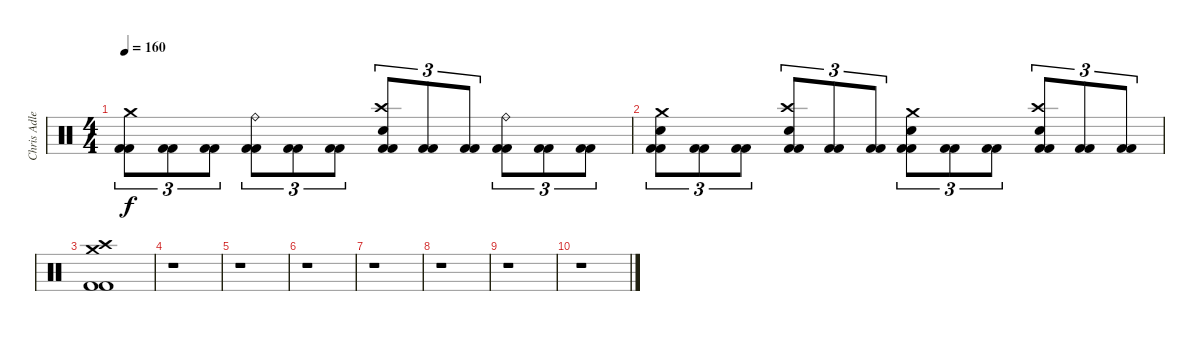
\track ("Chris Adler" "Chris Adle") {instrument percussion}
\staff {score}
\articulation defaults
\ts (4 4)
\tempo 160
\clef neutral
\ks c
("Crash medium (hit)" "Kick (hit) 2" "Kick (hit) 2").8{tu (3 2) dy f} ("Kick (hit) 2" "Kick (hit) 2").8{tu (3 2)} ("Kick (hit) 2" "Kick (hit) 2").8{tu (3 2)} ("Ride (bell)" "Kick (hit) 2" "Kick (hit) 2").8{tu (3 2)} ("Kick (hit) 2" "Kick (hit) 2").8{tu (3 2)} ("Kick (hit) 2" "Kick (hit) 2").8{tu (3 2)} ("Crash high (hit)" "Electric Snare (hit)" "Kick (hit) 2" "Kick (hit) 2").8{tu (3 2)} ("Kick (hit) 2" "Kick (hit) 2").8{tu (3 2)} ("Kick (hit) 2" "Kick (hit) 2").8{tu (3 2)} ("Ride (bell)" "Kick (hit) 2" "Kick (hit) 2").8{tu (3 2)} ("Kick (hit) 2" "Kick (hit) 2").8{tu (3 2)} ("Kick (hit) 2" "Kick (hit) 2").8{tu (3 2)} |
("Crash medium (hit)" "Electric Snare (hit)" "Kick (hit) 2" "Kick (hit) 2").8{tu (3 2)} ("Kick (hit) 2" "Kick (hit) 2").8{tu (3 2)} ("Kick (hit) 2" "Kick (hit) 2").8{tu (3 2)} ("Crash high (hit)" "Electric Snare (hit)" "Kick (hit) 2" "Kick (hit) 2").8{tu (3 2)} ("Kick (hit) 2" "Kick (hit) 2").8{tu (3 2)} ("Kick (hit) 2" "Kick (hit) 2").8{tu (3 2)} ("Crash medium (hit)" "Electric Snare (hit)" "Kick (hit) 2" "Kick (hit) 2").8{tu (3 2)} ("Kick (hit) 2" "Kick (hit) 2").8{tu (3 2)} ("Kick (hit) 2" "Kick (hit) 2").8{tu (3 2)} ("Crash high (hit)" "Electric Snare (hit)" "Kick (hit) 2" "Kick (hit) 2").8{tu (3 2)} ("Kick (hit) 2" "Kick (hit) 2").8{tu (3 2)} ("Kick (hit) 2" "Kick (hit) 2").8{tu (3 2)} |
("Crash medium (hit)" "Crash high (hit)" "Kick (hit) 2" "Kick (hit) 2").1 |
r.1 |
r.1 |
r.1 |
r.1 |
r.1 |
r.1 |
r.1
